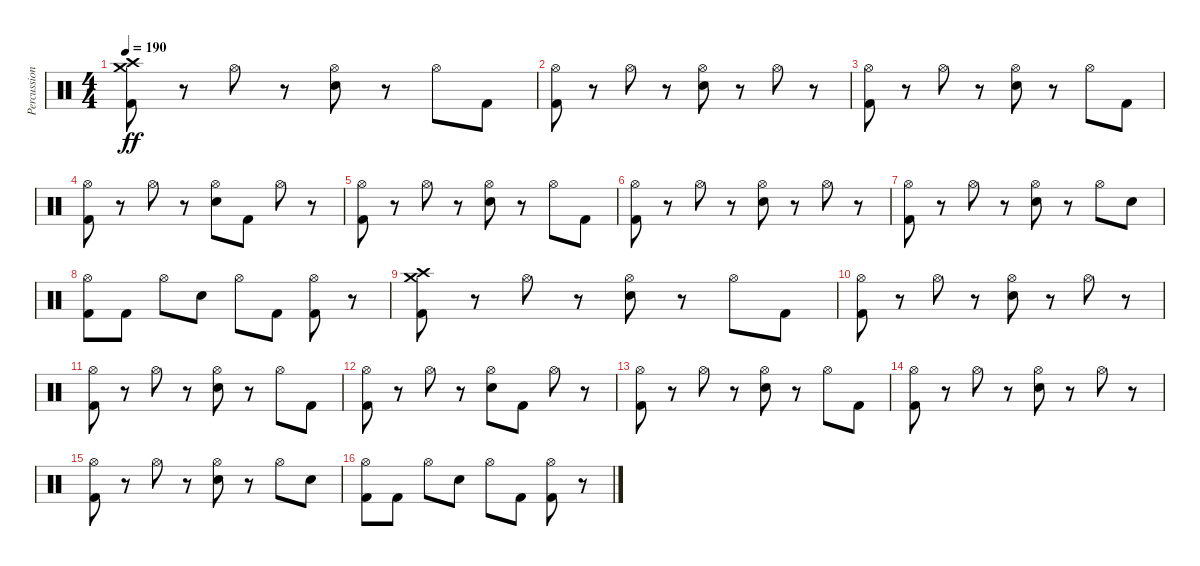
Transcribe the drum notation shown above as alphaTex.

\track ("Percussion" "Percussion") {instrument percussion}
\staff {score}
\articulation defaults
\ts (4 4)
\tempo 190
\clef neutral
\ks c
("Kick (hit) 2" "Crash high (hit)" "Crash medium (hit)").8{dy ff} r.8 "Hi-Hat (open)".8 r.8 ("Electric Snare (hit)" "Hi-Hat (open)").8 r.8 "Hi-Hat (open)".8 "Kick (hit) 2".8 |
("Kick (hit) 2" "Hi-Hat (open)").8 r.8 "Hi-Hat (open)".8 r.8 ("Electric Snare (hit)" "Hi-Hat (open)").8 r.8 "Hi-Hat (open)".8 r.8 |
("Kick (hit) 2" "Hi-Hat (open)").8 r.8 "Hi-Hat (open)".8 r.8 ("Electric Snare (hit)" "Hi-Hat (open)").8 r.8 "Hi-Hat (open)".8 "Kick (hit) 2".8 |
("Kick (hit) 2" "Hi-Hat (open)").8 r.8 "Hi-Hat (open)".8 r.8 ("Electric Snare (hit)" "Hi-Hat (open)").8 "Kick (hit) 2".8 "Hi-Hat (open)".8 r.8 |
("Kick (hit) 2" "Hi-Hat (open)").8 r.8 "Hi-Hat (open)".8 r.8 ("Electric Snare (hit)" "Hi-Hat (open)").8 r.8 "Hi-Hat (open)".8 "Kick (hit) 2".8 |
("Kick (hit) 2" "Hi-Hat (open)").8 r.8 "Hi-Hat (open)".8 r.8 ("Electric Snare (hit)" "Hi-Hat (open)").8 r.8 "Hi-Hat (open)".8 r.8 |
("Kick (hit) 2" "Hi-Hat (open)").8 r.8 "Hi-Hat (open)".8 r.8 ("Electric Snare (hit)" "Hi-Hat (open)").8 r.8 "Hi-Hat (open)".8 "Electric Snare (hit)".8 |
("Kick (hit) 2" "Hi-Hat (open)").8 "Kick (hit) 2".8 "Hi-Hat (open)".8 "Electric Snare (hit)".8 "Hi-Hat (open)".8 "Kick (hit) 2".8 ("Kick (hit) 2" "Hi-Hat (open)").8 r.8 |
("Kick (hit) 2" "Crash high (hit)" "Crash medium (hit)").8 r.8 "Hi-Hat (open)".8 r.8 ("Electric Snare (hit)" "Hi-Hat (open)").8 r.8 "Hi-Hat (open)".8 "Kick (hit) 2".8 |
("Kick (hit) 2" "Hi-Hat (open)").8 r.8 "Hi-Hat (open)".8 r.8 ("Electric Snare (hit)" "Hi-Hat (open)").8 r.8 "Hi-Hat (open)".8 r.8 |
("Kick (hit) 2" "Hi-Hat (open)").8 r.8 "Hi-Hat (open)".8 r.8 ("Electric Snare (hit)" "Hi-Hat (open)").8 r.8 "Hi-Hat (open)".8 "Kick (hit) 2".8 |
("Kick (hit) 2" "Hi-Hat (open)").8 r.8 "Hi-Hat (open)".8 r.8 ("Electric Snare (hit)" "Hi-Hat (open)").8 "Kick (hit) 2".8 "Hi-Hat (open)".8 r.8 |
("Kick (hit) 2" "Hi-Hat (open)").8 r.8 "Hi-Hat (open)".8 r.8 ("Electric Snare (hit)" "Hi-Hat (open)").8 r.8 "Hi-Hat (open)".8 "Kick (hit) 2".8 |
("Kick (hit) 2" "Hi-Hat (open)").8 r.8 "Hi-Hat (open)".8 r.8 ("Electric Snare (hit)" "Hi-Hat (open)").8 r.8 "Hi-Hat (open)".8 r.8 |
("Kick (hit) 2" "Hi-Hat (open)").8 r.8 "Hi-Hat (open)".8 r.8 ("Electric Snare (hit)" "Hi-Hat (open)").8 r.8 "Hi-Hat (open)".8 "Electric Snare (hit)".8 |
("Kick (hit) 2" "Hi-Hat (open)").8 "Kick (hit) 2".8 "Hi-Hat (open)".8 "Electric Snare (hit)".8 "Hi-Hat (open)".8 "Kick (hit) 2".8 ("Kick (hit) 2" "Hi-Hat (open)").8 r.8
